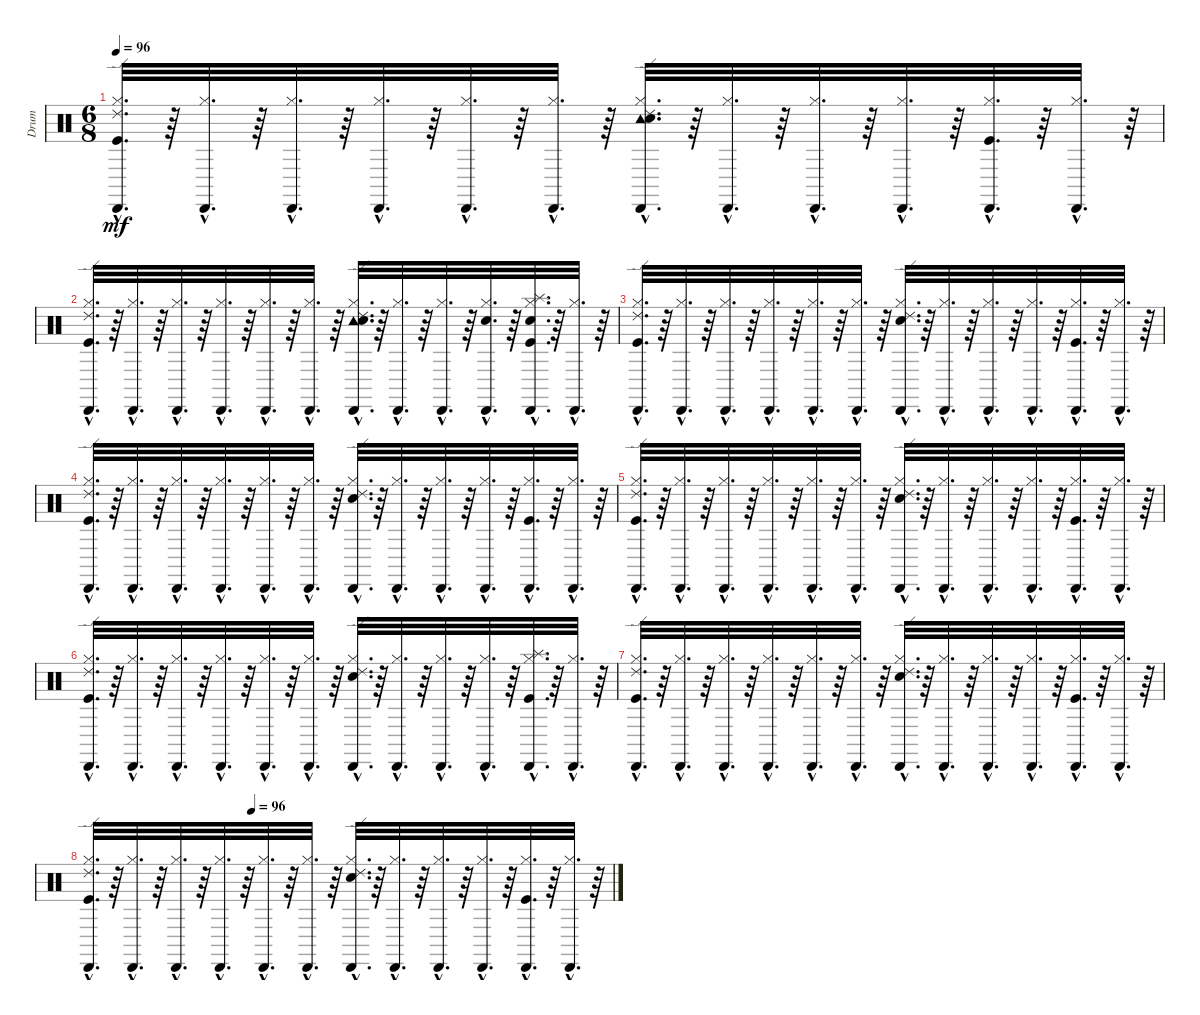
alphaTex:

\track ("Drum" "Drum") {instrument percussion}
\staff {score}
\articulation defaults
\ts (6 8)
\tempo 96
\clef neutral
\ks c
("Kick (hit)"{hac} "Hi-Hat (closed)"{hac} "Cabasa (hit)"{hac} "Ride (edge) 2"{hac}).32{d dy mf} r.64 ("Hi-Hat (closed)"{hac} "Cabasa (hit)"{hac}).32{d} r.64 ("Hi-Hat (closed)"{hac} "Cabasa (hit)"{hac}).32{d} r.64 ("Hi-Hat (closed)"{hac} "Cabasa (hit)"{hac}).32{d} r.64 ("Hi-Hat (closed)"{hac} "Cabasa (hit)"{hac}).32{d} r.64 ("Hi-Hat (closed)"{hac} "Cabasa (hit)"{hac}).32{d} r.64 ("Tambourine (hit)"{hac} "Snare (hit) 2"{hac} "Hi-Hat (closed)"{hac} "Cabasa (hit)"{hac} "Ride (edge) 2"{hac}).32{d} r.64 ("Hi-Hat (closed)"{hac} "Cabasa (hit)"{hac}).32{d} r.64 ("Hi-Hat (closed)"{hac} "Cabasa (hit)"{hac}).32{d} r.64 ("Hi-Hat (closed)"{hac} "Cabasa (hit)"{hac}).32{d} r.64 ("Kick (hit)"{hac} "Hi-Hat (closed)"{hac} "Cabasa (hit)"{hac}).32{d} r.64 ("Hi-Hat (closed)"{hac} "Cabasa (hit)"{hac}).32{d} r.64 |
("Kick (hit)"{hac} "Hi-Hat (closed)"{hac} "Cabasa (hit)"{hac} "Ride (edge) 2"{hac}).32{d} r.64 ("Hi-Hat (closed)"{hac} "Cabasa (hit)"{hac}).32{d} r.64 ("Hi-Hat (closed)"{hac} "Cabasa (hit)"{hac}).32{d} r.64 ("Hi-Hat (closed)"{hac} "Cabasa (hit)"{hac}).32{d} r.64 ("Hi-Hat (closed)"{hac} "Cabasa (hit)"{hac}).32{d} r.64 ("Hi-Hat (closed)"{hac} "Cabasa (hit)"{hac}).32{d} r.64 ("Tambourine (hit)"{hac} "Snare (hit) 2"{hac} "Hi-Hat (closed)"{hac} "Cabasa (hit)"{hac} "Ride (edge) 2"{hac}).32{d} r.64 ("Hi-Hat (closed)"{hac} "Cabasa (hit)"{hac}).32{d} r.64 ("Hi-Hat (closed)"{hac} "Cabasa (hit)"{hac}).32{d} r.64 ("Hi-Hat (closed)"{hac} "Cabasa (hit)"{hac} "Snare (hit) 2"{hac}).32{d} r.64 ("Kick (hit)"{hac} "Splash (hit)"{hac} "Hi-Hat (closed)"{hac} "Cabasa (hit)"{hac} "Snare (hit) 2"{hac}).32{d} r.64 ("Hi-Hat (closed)"{hac} "Cabasa (hit)"{hac}).32{d} r.64 |
("Ride (edge) 2"{hac} "Cabasa (hit)"{hac} "Kick (hit)"{hac} "Hi-Hat (closed)"{hac}).32{d} r.64 ("Cabasa (hit)"{hac} "Hi-Hat (closed)"{hac}).32{d} r.64 ("Cabasa (hit)"{hac} "Hi-Hat (closed)"{hac}).32{d} r.64 ("Cabasa (hit)"{hac} "Hi-Hat (closed)"{hac}).32{d} r.64 ("Cabasa (hit)"{hac} "Hi-Hat (closed)"{hac}).32{d} r.64 ("Cabasa (hit)"{hac} "Hi-Hat (closed)"{hac}).32{d} r.64 ("Ride (edge) 2"{hac} "Cabasa (hit)"{hac} "Snare (hit) 2"{hac} "Hi-Hat (closed)"{hac}).32{d} r.64 ("Cabasa (hit)"{hac} "Hi-Hat (closed)"{hac}).32{d} r.64 ("Cabasa (hit)"{hac} "Hi-Hat (closed)"{hac}).32{d} r.64 ("Cabasa (hit)"{hac} "Hi-Hat (closed)"{hac}).32{d} r.64 ("Kick (hit)"{hac} "Cabasa (hit)"{hac} "Hi-Hat (closed)"{hac}).32{d} r.64 ("Cabasa (hit)"{hac} "Hi-Hat (closed)"{hac}).32{d} r.64 |
("Ride (edge) 2"{hac} "Cabasa (hit)"{hac} "Hi-Hat (closed)"{hac} "Kick (hit)"{hac}).32{d} r.64 ("Cabasa (hit)"{hac} "Hi-Hat (closed)"{hac}).32{d} r.64 ("Cabasa (hit)"{hac} "Hi-Hat (closed)"{hac}).32{d} r.64 ("Cabasa (hit)"{hac} "Hi-Hat (closed)"{hac}).32{d} r.64 ("Cabasa (hit)"{hac} "Hi-Hat (closed)"{hac}).32{d} r.64 ("Cabasa (hit)"{hac} "Hi-Hat (closed)"{hac}).32{d} r.64 ("Ride (edge) 2"{hac} "Cabasa (hit)"{hac} "Hi-Hat (closed)"{hac} "Snare (hit) 2"{hac}).32{d} r.64 ("Cabasa (hit)"{hac} "Hi-Hat (closed)"{hac}).32{d} r.64 ("Cabasa (hit)"{hac} "Hi-Hat (closed)"{hac}).32{d} r.64 ("Cabasa (hit)"{hac} "Hi-Hat (closed)"{hac}).32{d} r.64 ("Kick (hit)"{hac} "Cabasa (hit)"{hac} "Hi-Hat (closed)"{hac}).32{d} r.64 ("Cabasa (hit)"{hac} "Hi-Hat (closed)"{hac}).32{d} r.64 |
("Kick (hit)"{hac} "Hi-Hat (closed)"{hac} "Cabasa (hit)"{hac} "Ride (edge) 2"{hac}).32{d} r.64 ("Hi-Hat (closed)"{hac} "Cabasa (hit)"{hac}).32{d} r.64 ("Hi-Hat (closed)"{hac} "Cabasa (hit)"{hac}).32{d} r.64 ("Hi-Hat (closed)"{hac} "Cabasa (hit)"{hac}).32{d} r.64 ("Hi-Hat (closed)"{hac} "Cabasa (hit)"{hac}).32{d} r.64 ("Hi-Hat (closed)"{hac} "Cabasa (hit)"{hac}).32{d} r.64 ("Snare (hit) 2"{hac} "Hi-Hat (closed)"{hac} "Cabasa (hit)"{hac} "Ride (edge) 2"{hac}).32{d} r.64 ("Hi-Hat (closed)"{hac} "Cabasa (hit)"{hac}).32{d} r.64 ("Hi-Hat (closed)"{hac} "Cabasa (hit)"{hac}).32{d} r.64 ("Hi-Hat (closed)"{hac} "Cabasa (hit)"{hac}).32{d} r.64 ("Kick (hit)"{hac} "Hi-Hat (closed)"{hac} "Cabasa (hit)"{hac}).32{d} r.64 ("Hi-Hat (closed)"{hac} "Cabasa (hit)"{hac}).32{d} r.64 |
("Kick (hit)"{hac} "Hi-Hat (closed)"{hac} "Cabasa (hit)"{hac} "Ride (edge) 2"{hac}).32{d} r.64 ("Hi-Hat (closed)"{hac} "Cabasa (hit)"{hac}).32{d} r.64 ("Hi-Hat (closed)"{hac} "Cabasa (hit)"{hac}).32{d} r.64 ("Hi-Hat (closed)"{hac} "Cabasa (hit)"{hac}).32{d} r.64 ("Hi-Hat (closed)"{hac} "Cabasa (hit)"{hac}).32{d} r.64 ("Hi-Hat (closed)"{hac} "Cabasa (hit)"{hac}).32{d} r.64 ("Snare (hit) 2"{hac} "Hi-Hat (closed)"{hac} "Cabasa (hit)"{hac} "Ride (edge) 2"{hac}).32{d} r.64 ("Hi-Hat (closed)"{hac} "Cabasa (hit)"{hac}).32{d} r.64 ("Hi-Hat (closed)"{hac} "Cabasa (hit)"{hac}).32{d} r.64 ("Hi-Hat (closed)"{hac} "Cabasa (hit)"{hac}).32{d} r.64 ("Kick (hit)"{hac} "Splash (hit)"{hac} "Hi-Hat (closed)"{hac} "Cabasa (hit)"{hac}).32{d} r.64 ("Hi-Hat (closed)"{hac} "Cabasa (hit)"{hac}).32{d} r.64 |
("Ride (edge) 2"{hac} "Cabasa (hit)"{hac} "Kick (hit)"{hac} "Hi-Hat (closed)"{hac}).32{d} r.64 ("Cabasa (hit)"{hac} "Hi-Hat (closed)"{hac}).32{d} r.64 ("Cabasa (hit)"{hac} "Hi-Hat (closed)"{hac}).32{d} r.64 ("Cabasa (hit)"{hac} "Hi-Hat (closed)"{hac}).32{d} r.64 ("Cabasa (hit)"{hac} "Hi-Hat (closed)"{hac}).32{d} r.64 ("Cabasa (hit)"{hac} "Hi-Hat (closed)"{hac}).32{d} r.64 ("Ride (edge) 2"{hac} "Cabasa (hit)"{hac} "Snare (hit) 2"{hac} "Hi-Hat (closed)"{hac}).32{d} r.64 ("Cabasa (hit)"{hac} "Hi-Hat (closed)"{hac}).32{d} r.64 ("Cabasa (hit)"{hac} "Hi-Hat (closed)"{hac}).32{d} r.64 ("Cabasa (hit)"{hac} "Hi-Hat (closed)"{hac}).32{d} r.64 ("Kick (hit)"{hac} "Cabasa (hit)"{hac} "Hi-Hat (closed)"{hac}).32{d} r.64 ("Cabasa (hit)"{hac} "Hi-Hat (closed)"{hac}).32{d} r.64 |
\tempo (96 0.3125)
("Ride (edge) 2"{hac} "Cabasa (hit)"{hac} "Hi-Hat (closed)"{hac} "Kick (hit)"{hac}).32{d} r.64 ("Cabasa (hit)"{hac} "Hi-Hat (closed)"{hac}).32{d} r.64 ("Cabasa (hit)"{hac} "Hi-Hat (closed)"{hac}).32{d} r.64 ("Cabasa (hit)"{hac} "Hi-Hat (closed)"{hac}).32{d} r.64 ("Cabasa (hit)"{hac} "Hi-Hat (closed)"{hac}).32{d} r.64 ("Cabasa (hit)"{hac} "Hi-Hat (closed)"{hac}).32{d} r.64 ("Ride (edge) 2"{hac} "Cabasa (hit)"{hac} "Hi-Hat (closed)"{hac} "Snare (hit) 2"{hac}).32{d} r.64 ("Cabasa (hit)"{hac} "Hi-Hat (closed)"{hac}).32{d} r.64 ("Cabasa (hit)"{hac} "Hi-Hat (closed)"{hac}).32{d} r.64 ("Cabasa (hit)"{hac} "Hi-Hat (closed)"{hac}).32{d} r.64 ("Kick (hit)"{hac} "Cabasa (hit)"{hac} "Hi-Hat (closed)"{hac}).32{d} r.64 ("Cabasa (hit)"{hac} "Hi-Hat (closed)"{hac}).32{d} r.64
